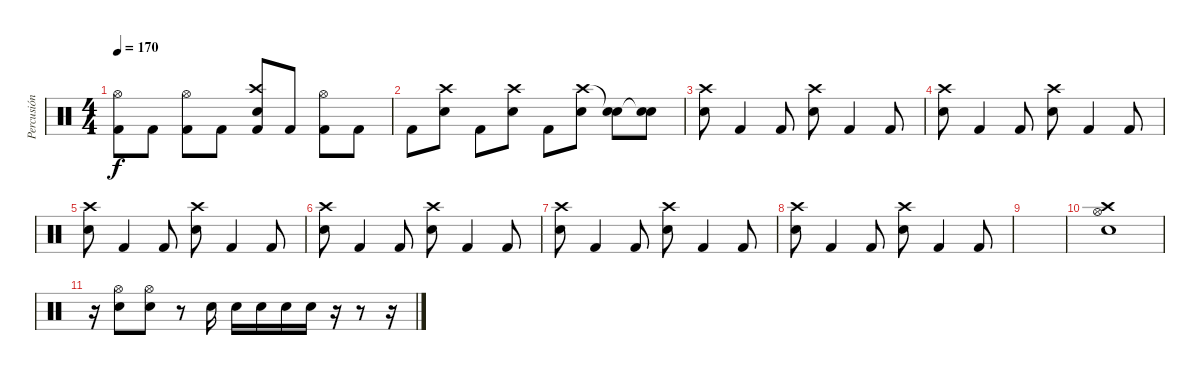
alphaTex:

\track ("Percusión" "Percusión") {instrument percussion}
\staff {score}
\articulation defaults
\ts (4 4)
\tempo 170
\clef neutral
\ks c
("Hi-Hat (open)" "Kick (hit) 2").8{dy f} "Kick (hit) 2".8 ("Hi-Hat (open)" "Kick (hit) 2").8 "Kick (hit) 2".8 ("Crash high (hit)" "Electric Snare (hit)" "Kick (hit) 2").8 "Kick (hit) 2".8 ("Hi-Hat (open)" "Kick (hit) 2").8 "Kick (hit) 2".8 |
"Kick (hit) 2".8 ("Crash high (hit)" "Electric Snare (hit)").8 "Kick (hit) 2".8 ("Crash high (hit)" "Electric Snare (hit)").8 "Kick (hit) 2".8 ("Crash high (hit)" "Electric Snare (hit)").8 ("Snare (hit)"{t} "Electric Snare (hit)").8 ("Snare (hit)"{t} "Electric Snare (hit)").8 |
("Crash high (hit)" "Electric Snare (hit)").8 "Kick (hit) 2".4 "Kick (hit) 2".8 ("Crash high (hit)" "Electric Snare (hit)").8 "Kick (hit) 2".4 "Kick (hit) 2".8 |
("Crash high (hit)" "Electric Snare (hit)").8 "Kick (hit) 2".4 "Kick (hit) 2".8 ("Crash high (hit)" "Electric Snare (hit)").8 "Kick (hit) 2".4 "Kick (hit) 2".8 |
("Crash high (hit)" "Electric Snare (hit)").8 "Kick (hit) 2".4 "Kick (hit) 2".8 ("Crash high (hit)" "Electric Snare (hit)").8 "Kick (hit) 2".4 "Kick (hit) 2".8 |
("Crash high (hit)" "Electric Snare (hit)").8 "Kick (hit) 2".4 "Kick (hit) 2".8 ("Crash high (hit)" "Electric Snare (hit)").8 "Kick (hit) 2".4 "Kick (hit) 2".8 |
("Crash high (hit)" "Electric Snare (hit)").8 "Kick (hit) 2".4 "Kick (hit) 2".8 ("Crash high (hit)" "Electric Snare (hit)").8 "Kick (hit) 2".4 "Kick (hit) 2".8 |
("Crash high (hit)" "Electric Snare (hit)").8 "Kick (hit) 2".4 "Kick (hit) 2".8 ("Crash high (hit)" "Electric Snare (hit)").8 "Kick (hit) 2".4 "Kick (hit) 2".8 |
|
("Crash high (hit)" "Hi-Hat (open)" "Electric Snare (hit)").1 |
r.16 ("Hi-Hat (open)" "Electric Snare (hit)").8 ("Hi-Hat (open)" "Electric Snare (hit)").8 r.8 "Electric Snare (hit)".16 "Electric Snare (hit)".16 "Electric Snare (hit)".16 "Electric Snare (hit)".16 "Electric Snare (hit)".16 r.16 r.8 r.16
